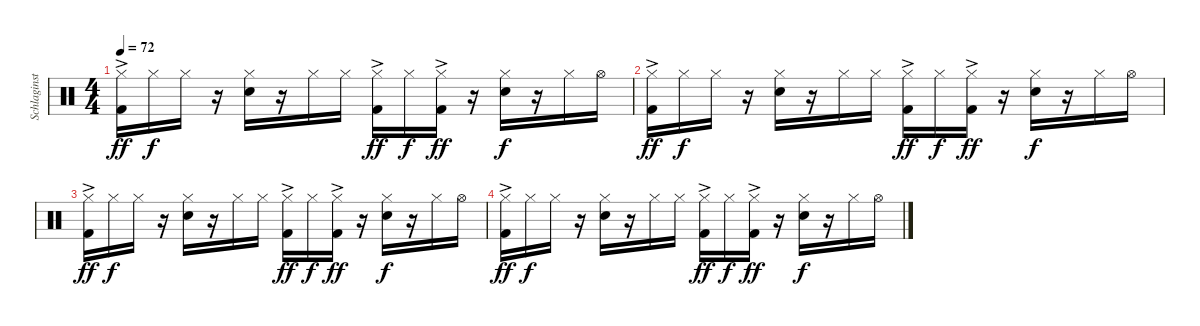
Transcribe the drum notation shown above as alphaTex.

\track ("Schlaginstrumente - Auswahl" "Schlaginst") {instrument percussion}
\staff {score}
\articulation defaults
\ts (4 4)
\tempo 72
\clef neutral
\ks c
("Hi-Hat (closed)" "Kick (hit) 2"{ac}).16{dy ff} "Hi-Hat (closed)".16{dy f} "Hi-Hat (closed)".16 r.16 ("Snare (hit) 2" "Hi-Hat (closed)").16 r.16 "Hi-Hat (closed)".16 "Hi-Hat (closed)".16 ("Hi-Hat (closed)" "Kick (hit) 2"{ac}).16{dy ff} "Hi-Hat (closed)".16{dy f} ("Hi-Hat (closed)" "Kick (hit) 2"{ac}).16{dy ff} r.16 ("Snare (hit) 2" "Hi-Hat (closed)").16{dy f} r.16 "Hi-Hat (closed)".16 "Hi-Hat (open)".16 |
("Hi-Hat (closed)" "Kick (hit) 2"{ac}).16{dy ff} "Hi-Hat (closed)".16{dy f} "Hi-Hat (closed)".16 r.16 ("Snare (hit) 2" "Hi-Hat (closed)").16 r.16 "Hi-Hat (closed)".16 "Hi-Hat (closed)".16 ("Hi-Hat (closed)" "Kick (hit) 2"{ac}).16{dy ff} "Hi-Hat (closed)".16{dy f} ("Hi-Hat (closed)" "Kick (hit) 2"{ac}).16{dy ff} r.16 ("Snare (hit) 2" "Hi-Hat (closed)").16{dy f} r.16 "Hi-Hat (closed)".16 "Hi-Hat (open)".16 |
("Hi-Hat (closed)" "Kick (hit) 2"{ac}).16{dy ff} "Hi-Hat (closed)".16{dy f} "Hi-Hat (closed)".16 r.16 ("Snare (hit) 2" "Hi-Hat (closed)").16 r.16 "Hi-Hat (closed)".16 "Hi-Hat (closed)".16 ("Hi-Hat (closed)" "Kick (hit) 2"{ac}).16{dy ff} "Hi-Hat (closed)".16{dy f} ("Hi-Hat (closed)" "Kick (hit) 2"{ac}).16{dy ff} r.16 ("Snare (hit) 2" "Hi-Hat (closed)").16{dy f} r.16 "Hi-Hat (closed)".16 "Hi-Hat (open)".16 |
("Hi-Hat (closed)" "Kick (hit) 2"{ac}).16{dy ff} "Hi-Hat (closed)".16{dy f} "Hi-Hat (closed)".16 r.16 ("Snare (hit) 2" "Hi-Hat (closed)").16 r.16 "Hi-Hat (closed)".16 "Hi-Hat (closed)".16 ("Hi-Hat (closed)" "Kick (hit) 2"{ac}).16{dy ff} "Hi-Hat (closed)".16{dy f} ("Hi-Hat (closed)" "Kick (hit) 2"{ac}).16{dy ff} r.16 ("Snare (hit) 2" "Hi-Hat (closed)").16{dy f} r.16 "Hi-Hat (closed)".16 "Hi-Hat (open)".16
